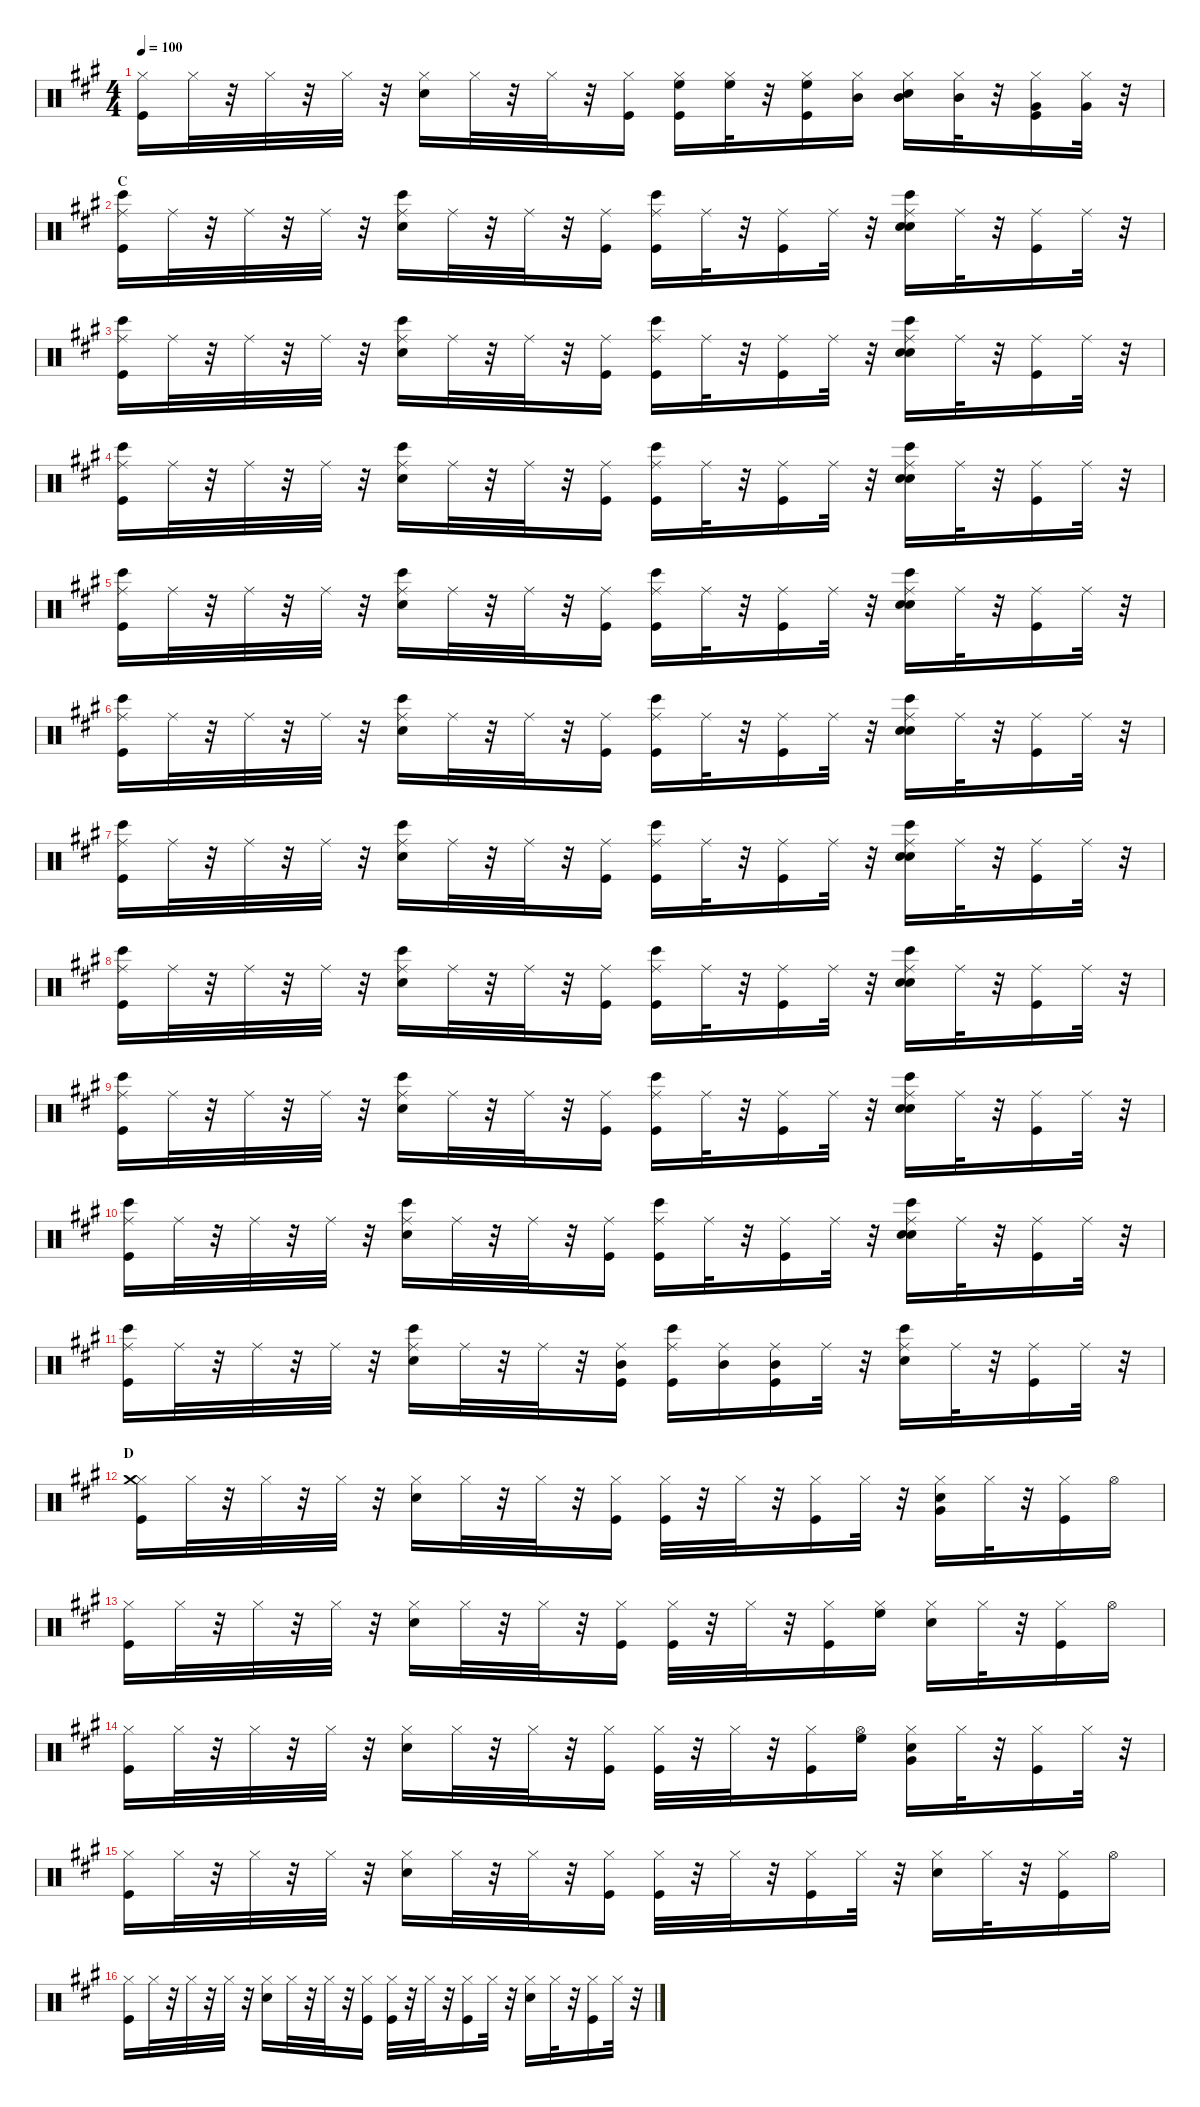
\defaultSystemsLayout 4
\hideDynamics
\bracketExtendMode nobrackets
\singleTrackTrackNamePolicy hidden
\multiTrackTrackNamePolicy hidden
\otherSystemsTrackNameOrientation horizontal
\track ("Percussion" "drm.") {instrument percussion}
\staff {score}
\articulation defaults
\ts (4 4)
\tempo 100
\clef neutral
\ks a
("Kick (hit)"{acc forcenatural} "Hi-Hat (closed)"{acc forcenatural}).16{dy f beam Down} "Hi-Hat (closed)"{acc forcenatural}.32{dy mp beam Down} r.32{beam Down} "Hi-Hat (closed)"{acc forcenatural}.32{dy f beam Down} r.32{beam Down} "Hi-Hat (closed)"{acc forcenatural}.32{beam Down} r.32{beam Down} ("Snare (hit) 2"{acc forcenatural} "Hi-Hat (closed)"{acc forcenatural}).16{dy fff beam Down} "Hi-Hat (closed)"{acc forcenatural}.32{dy mp beam Down} r.32{beam Down} "Hi-Hat (closed)"{acc forcenatural}.32{dy f beam Down} r.32{beam Down} ("Kick (hit)"{acc forcenatural} "Hi-Hat (closed)"{acc forcenatural}).16{dy mf beam Down} ("Kick (hit)"{acc forcenatural} "Hi-Hat (closed)"{acc forcenatural} "High Floor Tom (hit)"{acc forcenatural}).16{dy f beam Down} ("Hi-Hat (closed)"{acc forcenatural} "High Floor Tom (hit)"{acc forcenatural}).32{dy mp beam Down} r.32{beam Down} ("Kick (hit)"{acc forcenatural} "Hi-Hat (closed)"{acc forcenatural} "High Floor Tom (hit)"{acc forcenatural}).16{dy f beam Down} ("Hi-Hat (closed)"{acc forcenatural} "Mid Tom (hit)"{acc forcenatural}).16{beam Down} ("Snare (hit) 2"{acc forcenatural} "Hi-Hat (closed)"{acc forcenatural} "Mid Tom (hit)"{acc forcenatural}).16{dy fff beam Down} ("Hi-Hat (closed)"{acc forcenatural} "Mid Tom (hit)"{acc forcenatural}).32{dy mp beam Down} r.32{beam Down} ("Kick (hit)"{acc forcenatural} "Hi-Hat (closed)"{acc forcenatural} "Very Low Tom (hit)"{acc forcenatural}).16{dy f beam Down} ("Hi-Hat (closed)"{acc forcenatural} "Very Low Tom (hit)"{acc forcenatural}).32{beam Down} r.32{beam Down} |
\section ("" "C")
("Kick (hit)"{acc forcenatural} "Ride (middle)"{acc forcenatural} "Bongo High (hit)"{acc forcenatural}).16{beam Down} "Ride (middle)"{acc forcenatural}.32{dy mp beam Down} r.32{beam Down} "Ride (middle)"{acc forcenatural}.32{beam Down} r.32{beam Down} "Ride (middle)"{acc forcenatural}.32{beam Down} r.32{beam Down} ("Snare (hit) 2"{acc forcenatural} "Ride (middle)"{acc forcenatural} "Bongo High (hit)"{acc forcenatural}).16{dy fff beam Down} "Ride (middle)"{acc forcenatural}.32{dy mp beam Down} r.32{beam Down} "Ride (middle)"{acc forcenatural}.32{beam Down} r.32{beam Down} ("Kick (hit)"{acc forcenatural} "Ride (middle)"{acc forcenatural}).16{dy mf beam Down} ("Kick (hit)"{acc forcenatural} "Ride (middle)"{acc forcenatural} "Bongo High (hit)"{acc forcenatural}).16{dy f beam Down} "Ride (middle)"{acc forcenatural}.32{dy mp beam Down} r.32{beam Down} ("Kick (hit)"{acc forcenatural} "Ride (middle)"{acc forcenatural}).16{dy f beam Down} "Ride (middle)"{acc forcenatural}.32{dy mp beam Down} r.32{beam Down} ("Hand Clap (hit)"{acc forcenatural} "Snare (hit) 2"{acc forcenatural} "Ride (middle)"{acc forcenatural} "Bongo High (hit)"{acc forcenatural}).16{dy f beam Down} "Ride (middle)"{acc forcenatural}.32{dy mp beam Down} r.32{beam Down} ("Kick (hit)"{acc forcenatural} "Ride (middle)"{acc forcenatural}).16{dy f beam Down} "Ride (middle)"{acc forcenatural}.32{dy mp beam Down} r.32{beam Down} |
("Kick (hit)"{acc forcenatural} "Ride (middle)"{acc forcenatural} "Bongo High (hit)"{acc forcenatural}).16{dy f beam Down} "Ride (middle)"{acc forcenatural}.32{dy mp beam Down} r.32{beam Down} "Ride (middle)"{acc forcenatural}.32{beam Down} r.32{beam Down} "Ride (middle)"{acc forcenatural}.32{beam Down} r.32{beam Down} ("Snare (hit) 2"{acc forcenatural} "Ride (middle)"{acc forcenatural} "Bongo High (hit)"{acc forcenatural}).16{dy fff beam Down} "Ride (middle)"{acc forcenatural}.32{dy mp beam Down} r.32{beam Down} "Ride (middle)"{acc forcenatural}.32{beam Down} r.32{beam Down} ("Kick (hit)"{acc forcenatural} "Ride (middle)"{acc forcenatural}).16{dy mf beam Down} ("Kick (hit)"{acc forcenatural} "Ride (middle)"{acc forcenatural} "Bongo High (hit)"{acc forcenatural}).16{dy f beam Down} "Ride (middle)"{acc forcenatural}.32{dy mp beam Down} r.32{beam Down} ("Kick (hit)"{acc forcenatural} "Ride (middle)"{acc forcenatural}).16{dy f beam Down} "Ride (middle)"{acc forcenatural}.32{dy mp beam Down} r.32{beam Down} ("Hand Clap (hit)"{acc forcenatural} "Snare (hit) 2"{acc forcenatural} "Ride (middle)"{acc forcenatural} "Bongo High (hit)"{acc forcenatural}).16{dy f beam Down} "Ride (middle)"{acc forcenatural}.32{dy mp beam Down} r.32{beam Down} ("Kick (hit)"{acc forcenatural} "Ride (middle)"{acc forcenatural}).16{dy f beam Down} "Ride (middle)"{acc forcenatural}.32{dy mp beam Down} r.32{beam Down} |
("Kick (hit)"{acc forcenatural} "Ride (middle)"{acc forcenatural} "Bongo High (hit)"{acc forcenatural}).16{dy f beam Down} "Ride (middle)"{acc forcenatural}.32{dy mp beam Down} r.32{beam Down} "Ride (middle)"{acc forcenatural}.32{beam Down} r.32{beam Down} "Ride (middle)"{acc forcenatural}.32{beam Down} r.32{beam Down} ("Snare (hit) 2"{acc forcenatural} "Ride (middle)"{acc forcenatural} "Bongo High (hit)"{acc forcenatural}).16{dy fff beam Down} "Ride (middle)"{acc forcenatural}.32{dy mp beam Down} r.32{beam Down} "Ride (middle)"{acc forcenatural}.32{beam Down} r.32{beam Down} ("Kick (hit)"{acc forcenatural} "Ride (middle)"{acc forcenatural}).16{dy mf beam Down} ("Kick (hit)"{acc forcenatural} "Ride (middle)"{acc forcenatural} "Bongo High (hit)"{acc forcenatural}).16{dy f beam Down} "Ride (middle)"{acc forcenatural}.32{dy mp beam Down} r.32{beam Down} ("Kick (hit)"{acc forcenatural} "Ride (middle)"{acc forcenatural}).16{dy f beam Down} "Ride (middle)"{acc forcenatural}.32{dy mp beam Down} r.32{beam Down} ("Hand Clap (hit)"{acc forcenatural} "Snare (hit) 2"{acc forcenatural} "Ride (middle)"{acc forcenatural} "Bongo High (hit)"{acc forcenatural}).16{dy f beam Down} "Ride (middle)"{acc forcenatural}.32{dy mp beam Down} r.32{beam Down} ("Kick (hit)"{acc forcenatural} "Ride (middle)"{acc forcenatural}).16{dy f beam Down} "Ride (middle)"{acc forcenatural}.32{dy mp beam Down} r.32{beam Down} |
("Kick (hit)"{acc forcenatural} "Ride (middle)"{acc forcenatural} "Bongo High (hit)"{acc forcenatural}).16{dy f beam Down} "Ride (middle)"{acc forcenatural}.32{dy mp beam Down} r.32{beam Down} "Ride (middle)"{acc forcenatural}.32{beam Down} r.32{beam Down} "Ride (middle)"{acc forcenatural}.32{beam Down} r.32{beam Down} ("Snare (hit) 2"{acc forcenatural} "Ride (middle)"{acc forcenatural} "Bongo High (hit)"{acc forcenatural}).16{dy fff beam Down} "Ride (middle)"{acc forcenatural}.32{dy mp beam Down} r.32{beam Down} "Ride (middle)"{acc forcenatural}.32{beam Down} r.32{beam Down} ("Kick (hit)"{acc forcenatural} "Ride (middle)"{acc forcenatural}).16{dy mf beam Down} ("Kick (hit)"{acc forcenatural} "Ride (middle)"{acc forcenatural} "Bongo High (hit)"{acc forcenatural}).16{dy f beam Down} "Ride (middle)"{acc forcenatural}.32{dy mp beam Down} r.32{beam Down} ("Kick (hit)"{acc forcenatural} "Ride (middle)"{acc forcenatural}).16{dy f beam Down} "Ride (middle)"{acc forcenatural}.32{dy mp beam Down} r.32{beam Down} ("Hand Clap (hit)"{acc forcenatural} "Snare (hit) 2"{acc forcenatural} "Ride (middle)"{acc forcenatural} "Bongo High (hit)"{acc forcenatural}).16{dy f beam Down} "Ride (middle)"{acc forcenatural}.32{dy mp beam Down} r.32{beam Down} ("Kick (hit)"{acc forcenatural} "Ride (middle)"{acc forcenatural}).16{dy f beam Down} "Ride (middle)"{acc forcenatural}.32{dy mp beam Down} r.32{beam Down} |
("Kick (hit)"{acc forcenatural} "Ride (middle)"{acc forcenatural} "Bongo High (hit)"{acc forcenatural}).16{dy f beam Down} "Ride (middle)"{acc forcenatural}.32{dy mp beam Down} r.32{beam Down} "Ride (middle)"{acc forcenatural}.32{beam Down} r.32{beam Down} "Ride (middle)"{acc forcenatural}.32{beam Down} r.32{beam Down} ("Snare (hit) 2"{acc forcenatural} "Ride (middle)"{acc forcenatural} "Bongo High (hit)"{acc forcenatural}).16{dy fff beam Down} "Ride (middle)"{acc forcenatural}.32{dy mp beam Down} r.32{beam Down} "Ride (middle)"{acc forcenatural}.32{beam Down} r.32{beam Down} ("Kick (hit)"{acc forcenatural} "Ride (middle)"{acc forcenatural}).16{dy mf beam Down} ("Kick (hit)"{acc forcenatural} "Ride (middle)"{acc forcenatural} "Bongo High (hit)"{acc forcenatural}).16{dy f beam Down} "Ride (middle)"{acc forcenatural}.32{dy mp beam Down} r.32{beam Down} ("Kick (hit)"{acc forcenatural} "Ride (middle)"{acc forcenatural}).16{dy f beam Down} "Ride (middle)"{acc forcenatural}.32{dy mp beam Down} r.32{beam Down} ("Hand Clap (hit)"{acc forcenatural} "Snare (hit) 2"{acc forcenatural} "Ride (middle)"{acc forcenatural} "Bongo High (hit)"{acc forcenatural}).16{dy f beam Down} "Ride (middle)"{acc forcenatural}.32{dy mp beam Down} r.32{beam Down} ("Kick (hit)"{acc forcenatural} "Ride (middle)"{acc forcenatural}).16{dy f beam Down} "Ride (middle)"{acc forcenatural}.32{dy mp beam Down} r.32{beam Down} |
("Kick (hit)"{acc forcenatural} "Ride (middle)"{acc forcenatural} "Bongo High (hit)"{acc forcenatural}).16{dy f beam Down} "Ride (middle)"{acc forcenatural}.32{dy mp beam Down} r.32{beam Down} "Ride (middle)"{acc forcenatural}.32{beam Down} r.32{beam Down} "Ride (middle)"{acc forcenatural}.32{beam Down} r.32{beam Down} ("Snare (hit) 2"{acc forcenatural} "Ride (middle)"{acc forcenatural} "Bongo High (hit)"{acc forcenatural}).16{dy fff beam Down} "Ride (middle)"{acc forcenatural}.32{dy mp beam Down} r.32{beam Down} "Ride (middle)"{acc forcenatural}.32{beam Down} r.32{beam Down} ("Kick (hit)"{acc forcenatural} "Ride (middle)"{acc forcenatural}).16{dy mf beam Down} ("Kick (hit)"{acc forcenatural} "Ride (middle)"{acc forcenatural} "Bongo High (hit)"{acc forcenatural}).16{dy f beam Down} "Ride (middle)"{acc forcenatural}.32{dy mp beam Down} r.32{beam Down} ("Kick (hit)"{acc forcenatural} "Ride (middle)"{acc forcenatural}).16{dy f beam Down} "Ride (middle)"{acc forcenatural}.32{dy mp beam Down} r.32{beam Down} ("Hand Clap (hit)"{acc forcenatural} "Snare (hit) 2"{acc forcenatural} "Ride (middle)"{acc forcenatural} "Bongo High (hit)"{acc forcenatural}).16{dy f beam Down} "Ride (middle)"{acc forcenatural}.32{dy mp beam Down} r.32{beam Down} ("Kick (hit)"{acc forcenatural} "Ride (middle)"{acc forcenatural}).16{dy f beam Down} "Ride (middle)"{acc forcenatural}.32{dy mp beam Down} r.32{beam Down} |
("Kick (hit)"{acc forcenatural} "Ride (middle)"{acc forcenatural} "Bongo High (hit)"{acc forcenatural}).16{dy f beam Down} "Ride (middle)"{acc forcenatural}.32{dy mp beam Down} r.32{beam Down} "Ride (middle)"{acc forcenatural}.32{beam Down} r.32{beam Down} "Ride (middle)"{acc forcenatural}.32{beam Down} r.32{beam Down} ("Snare (hit) 2"{acc forcenatural} "Ride (middle)"{acc forcenatural} "Bongo High (hit)"{acc forcenatural}).16{dy fff beam Down} "Ride (middle)"{acc forcenatural}.32{dy mp beam Down} r.32{beam Down} "Ride (middle)"{acc forcenatural}.32{beam Down} r.32{beam Down} ("Kick (hit)"{acc forcenatural} "Ride (middle)"{acc forcenatural}).16{dy mf beam Down} ("Kick (hit)"{acc forcenatural} "Ride (middle)"{acc forcenatural} "Bongo High (hit)"{acc forcenatural}).16{dy f beam Down} "Ride (middle)"{acc forcenatural}.32{dy mp beam Down} r.32{beam Down} ("Kick (hit)"{acc forcenatural} "Ride (middle)"{acc forcenatural}).16{dy f beam Down} "Ride (middle)"{acc forcenatural}.32{dy mp beam Down} r.32{beam Down} ("Hand Clap (hit)"{acc forcenatural} "Snare (hit) 2"{acc forcenatural} "Ride (middle)"{acc forcenatural} "Bongo High (hit)"{acc forcenatural}).16{dy f beam Down} "Ride (middle)"{acc forcenatural}.32{dy mp beam Down} r.32{beam Down} ("Kick (hit)"{acc forcenatural} "Ride (middle)"{acc forcenatural}).16{dy f beam Down} "Ride (middle)"{acc forcenatural}.32{dy mp beam Down} r.32{beam Down} |
("Kick (hit)"{acc forcenatural} "Ride (middle)"{acc forcenatural} "Bongo High (hit)"{acc forcenatural}).16{dy f beam Down} "Ride (middle)"{acc forcenatural}.32{dy mp beam Down} r.32{beam Down} "Ride (middle)"{acc forcenatural}.32{beam Down} r.32{beam Down} "Ride (middle)"{acc forcenatural}.32{beam Down} r.32{beam Down} ("Snare (hit) 2"{acc forcenatural} "Ride (middle)"{acc forcenatural} "Bongo High (hit)"{acc forcenatural}).16{dy fff beam Down} "Ride (middle)"{acc forcenatural}.32{dy mp beam Down} r.32{beam Down} "Ride (middle)"{acc forcenatural}.32{beam Down} r.32{beam Down} ("Kick (hit)"{acc forcenatural} "Ride (middle)"{acc forcenatural}).16{dy mf beam Down} ("Kick (hit)"{acc forcenatural} "Ride (middle)"{acc forcenatural} "Bongo High (hit)"{acc forcenatural}).16{dy f beam Down} "Ride (middle)"{acc forcenatural}.32{dy mp beam Down} r.32{beam Down} ("Kick (hit)"{acc forcenatural} "Ride (middle)"{acc forcenatural}).16{dy f beam Down} "Ride (middle)"{acc forcenatural}.32{dy mp beam Down} r.32{beam Down} ("Hand Clap (hit)"{acc forcenatural} "Snare (hit) 2"{acc forcenatural} "Ride (middle)"{acc forcenatural} "Bongo High (hit)"{acc forcenatural}).16{dy f beam Down} "Ride (middle)"{acc forcenatural}.32{dy mp beam Down} r.32{beam Down} ("Kick (hit)"{acc forcenatural} "Ride (middle)"{acc forcenatural}).16{dy f beam Down} "Ride (middle)"{acc forcenatural}.32{dy mp beam Down} r.32{beam Down} |
("Kick (hit)"{acc forcenatural} "Ride (middle)"{acc forcenatural} "Bongo High (hit)"{acc forcenatural}).16{dy f beam Down} "Ride (middle)"{acc forcenatural}.32{dy mp beam Down} r.32{beam Down} "Ride (middle)"{acc forcenatural}.32{beam Down} r.32{beam Down} "Ride (middle)"{acc forcenatural}.32{beam Down} r.32{beam Down} ("Snare (hit) 2"{acc forcenatural} "Ride (middle)"{acc forcenatural} "Bongo High (hit)"{acc forcenatural}).16{dy fff beam Down} "Ride (middle)"{acc forcenatural}.32{dy mp beam Down} r.32{beam Down} "Ride (middle)"{acc forcenatural}.32{beam Down} r.32{beam Down} ("Kick (hit)"{acc forcenatural} "Ride (middle)"{acc forcenatural}).16{dy mf beam Down} ("Kick (hit)"{acc forcenatural} "Ride (middle)"{acc forcenatural} "Bongo High (hit)"{acc forcenatural}).16{dy f beam Down} "Ride (middle)"{acc forcenatural}.32{dy mp beam Down} r.32{beam Down} ("Kick (hit)"{acc forcenatural} "Ride (middle)"{acc forcenatural}).16{dy f beam Down} "Ride (middle)"{acc forcenatural}.32{dy mp beam Down} r.32{beam Down} ("Hand Clap (hit)"{acc forcenatural} "Snare (hit) 2"{acc forcenatural} "Ride (middle)"{acc forcenatural} "Bongo High (hit)"{acc forcenatural}).16{dy f beam Down} "Ride (middle)"{acc forcenatural}.32{dy mp beam Down} r.32{beam Down} ("Kick (hit)"{acc forcenatural} "Ride (middle)"{acc forcenatural}).16{dy f beam Down} "Ride (middle)"{acc forcenatural}.32{dy mp beam Down} r.32{beam Down} |
("Kick (hit)"{acc forcenatural} "Ride (middle)"{acc forcenatural} "Bongo High (hit)"{acc forcenatural}).16{dy f beam Down} "Ride (middle)"{acc forcenatural}.32{dy mp beam Down} r.32{beam Down} "Ride (middle)"{acc forcenatural}.32{beam Down} r.32{beam Down} "Ride (middle)"{acc forcenatural}.32{beam Down} r.32{beam Down} ("Snare (hit) 2"{acc forcenatural} "Ride (middle)"{acc forcenatural} "Bongo High (hit)"{acc forcenatural}).16{dy fff beam Down} "Ride (middle)"{acc forcenatural}.32{dy mp beam Down} r.32{beam Down} "Ride (middle)"{acc forcenatural}.32{beam Down} r.32{beam Down} ("Kick (hit)"{acc forcenatural} "Mid Tom (hit)"{acc forcenatural} "Ride (middle)"{acc forcenatural}).16{dy mf beam Down} ("Kick (hit)"{acc forcenatural} "Ride (middle)"{acc forcenatural} "Bongo High (hit)"{acc forcenatural}).16{dy f beam Down} ("Mid Tom (hit)"{acc forcenatural} "Ride (middle)"{acc forcenatural}).16{beam Down} ("Kick (hit)"{acc forcenatural} "Mid Tom (hit)"{acc forcenatural} "Ride (middle)"{acc forcenatural}).16{beam Down} "Ride (middle)"{acc forcenatural}.32{dy mp beam Down} r.32{beam Down} ("Snare (hit) 2"{acc forcenatural} "Ride (middle)"{acc forcenatural} "Bongo High (hit)"{acc forcenatural}).16{dy fff beam Down} "Ride (middle)"{acc forcenatural}.32{dy mp beam Down} r.32{beam Down} ("Kick (hit)"{acc forcenatural} "Ride (middle)"{acc forcenatural}).16{dy f beam Down} "Ride (middle)"{acc forcenatural}.32{dy mp beam Down} r.32{beam Down} |
\section ("" "D")
("Kick (hit)"{acc forcenatural} "Hi-Hat (closed)"{acc forcenatural} "Crash medium (hit)"{acc forcenatural}).16{dy f beam Down} "Hi-Hat (closed)"{acc forcenatural}.32{dy mp beam Down} r.32{beam Down} "Hi-Hat (closed)"{acc forcenatural}.32{dy f beam Down} r.32{beam Down} "Hi-Hat (closed)"{acc forcenatural}.32{beam Down} r.32{beam Down} ("Snare (hit) 2"{acc forcenatural} "Hi-Hat (closed)"{acc forcenatural}).16{dy fff beam Down} "Hi-Hat (closed)"{acc forcenatural}.32{dy mp beam Down} r.32{beam Down} "Hi-Hat (closed)"{acc forcenatural}.32{dy f beam Down} r.32{beam Down} ("Kick (hit)"{acc forcenatural} "Hi-Hat (closed)"{acc forcenatural}).16{dy mf beam Down} ("Kick (hit)"{acc forcenatural} "Hi-Hat (closed)"{acc forcenatural}).32{dy f beam Down} r.32{beam Down} "Hi-Hat (closed)"{acc forcenatural}.32{dy mp beam Down} r.32{beam Down} ("Kick (hit)"{acc forcenatural} "Hi-Hat (closed)"{acc forcenatural}).16{dy f beam Down} "Hi-Hat (closed)"{acc forcenatural}.32{beam Down} r.32{beam Down} ("Snare (hit) 2"{acc forcenatural} "Hi-Hat (closed)"{acc forcenatural} "Very Low Tom (hit)"{acc forcenatural}).16{dy fff beam Down} "Hi-Hat (closed)"{acc forcenatural}.32{dy mp beam Down} r.32{beam Down} ("Kick (hit)"{acc forcenatural} "Hi-Hat (closed)"{acc forcenatural}).16{dy f beam Down} "Hi-Hat (open)"{acc forcenatural}.16{beam Down} |
("Kick (hit)"{acc forcenatural} "Hi-Hat (closed)"{acc forcenatural}).16{beam Down} "Hi-Hat (closed)"{acc forcenatural}.32{dy mp beam Down} r.32{beam Down} "Hi-Hat (closed)"{acc forcenatural}.32{dy f beam Down} r.32{beam Down} "Hi-Hat (closed)"{acc forcenatural}.32{beam Down} r.32{beam Down} ("Snare (hit) 2"{acc forcenatural} "Hi-Hat (closed)"{acc forcenatural}).16{dy fff beam Down} "Hi-Hat (closed)"{acc forcenatural}.32{dy mp beam Down} r.32{beam Down} "Hi-Hat (closed)"{acc forcenatural}.32{dy f beam Down} r.32{beam Down} ("Kick (hit)"{acc forcenatural} "Hi-Hat (closed)"{acc forcenatural}).16{dy mf beam Down} ("Kick (hit)"{acc forcenatural} "Hi-Hat (closed)"{acc forcenatural}).32{dy f beam Down} r.32{beam Down} "Hi-Hat (closed)"{acc forcenatural}.32{dy mp beam Down} r.32{beam Down} ("Kick (hit)"{acc forcenatural} "Hi-Hat (closed)"{acc forcenatural}).16{dy f beam Down} ("Hi-Hat (closed)"{acc forcenatural} "High Floor Tom (hit)"{acc forcenatural}).16{beam Down} ("Snare (hit) 2"{acc forcenatural} "Hi-Hat (closed)"{acc forcenatural}).16{dy fff beam Down} "Hi-Hat (closed)"{acc forcenatural}.32{dy mp beam Down} r.32{beam Down} ("Kick (hit)"{acc forcenatural} "Hi-Hat (closed)"{acc forcenatural}).16{dy f beam Down} "Hi-Hat (open)"{acc forcenatural}.16{beam Down} |
("Kick (hit)"{acc forcenatural} "Hi-Hat (closed)"{acc forcenatural}).16{beam Down} "Hi-Hat (closed)"{acc forcenatural}.32{dy mp beam Down} r.32{beam Down} "Hi-Hat (closed)"{acc forcenatural}.32{dy f beam Down} r.32{beam Down} "Hi-Hat (closed)"{acc forcenatural}.32{beam Down} r.32{beam Down} ("Snare (hit) 2"{acc forcenatural} "Hi-Hat (closed)"{acc forcenatural}).16{dy fff beam Down} "Hi-Hat (closed)"{acc forcenatural}.32{dy mp beam Down} r.32{beam Down} "Hi-Hat (closed)"{acc forcenatural}.32{dy f beam Down} r.32{beam Down} ("Kick (hit)"{acc forcenatural} "Hi-Hat (closed)"{acc forcenatural}).16{dy mf beam Down} ("Kick (hit)"{acc forcenatural} "Hi-Hat (closed)"{acc forcenatural}).32{dy f beam Down} r.32{beam Down} "Hi-Hat (closed)"{acc forcenatural}.32{dy mp beam Down} r.32{beam Down} ("Kick (hit)"{acc forcenatural} "Hi-Hat (closed)"{acc forcenatural}).16{dy f beam Down} ("Hi-Hat (open)"{acc forcenatural} "High Floor Tom (hit)"{acc forcenatural}).16{beam Down} ("Snare (hit) 2"{acc forcenatural} "Hi-Hat (closed)"{acc forcenatural} "Very Low Tom (hit)"{acc forcenatural}).16{dy fff beam Down} "Hi-Hat (closed)"{acc forcenatural}.32{dy mp beam Down} r.32{beam Down} ("Kick (hit)"{acc forcenatural} "Hi-Hat (closed)"{acc forcenatural}).16{dy f beam Down} "Hi-Hat (closed)"{acc forcenatural}.32{beam Down} r.32{beam Down} |
("Kick (hit)"{acc forcenatural} "Hi-Hat (closed)"{acc forcenatural}).16{beam Down} "Hi-Hat (closed)"{acc forcenatural}.32{dy mp beam Down} r.32{beam Down} "Hi-Hat (closed)"{acc forcenatural}.32{dy f beam Down} r.32{beam Down} "Hi-Hat (closed)"{acc forcenatural}.32{beam Down} r.32{beam Down} ("Snare (hit) 2"{acc forcenatural} "Hi-Hat (closed)"{acc forcenatural}).16{dy fff beam Down} "Hi-Hat (closed)"{acc forcenatural}.32{dy mp beam Down} r.32{beam Down} "Hi-Hat (closed)"{acc forcenatural}.32{dy f beam Down} r.32{beam Down} ("Kick (hit)"{acc forcenatural} "Hi-Hat (closed)"{acc forcenatural}).16{dy mf beam Down} ("Kick (hit)"{acc forcenatural} "Hi-Hat (closed)"{acc forcenatural}).32{dy f beam Down} r.32{beam Down} "Hi-Hat (closed)"{acc forcenatural}.32{dy mp beam Down} r.32{beam Down} ("Kick (hit)"{acc forcenatural} "Hi-Hat (closed)"{acc forcenatural}).16{dy f beam Down} "Hi-Hat (closed)"{acc forcenatural}.32{beam Down} r.32{beam Down} ("Snare (hit) 2"{acc forcenatural} "Hi-Hat (closed)"{acc forcenatural}).16{dy fff beam Down} "Hi-Hat (closed)"{acc forcenatural}.32{dy mp beam Down} r.32{beam Down} ("Kick (hit)"{acc forcenatural} "Hi-Hat (closed)"{acc forcenatural}).16{dy f beam Down} "Hi-Hat (open)"{acc forcenatural}.16{beam Down} |
("Kick (hit)"{acc forcenatural} "Hi-Hat (closed)"{acc forcenatural}).16{beam Down} "Hi-Hat (closed)"{acc forcenatural}.32{dy mp beam Down} r.32{beam Down} "Hi-Hat (closed)"{acc forcenatural}.32{dy f beam Down} r.32{beam Down} "Hi-Hat (closed)"{acc forcenatural}.32{beam Down} r.32{beam Down} ("Snare (hit) 2"{acc forcenatural} "Hi-Hat (closed)"{acc forcenatural}).16{dy fff beam Down} "Hi-Hat (closed)"{acc forcenatural}.32{dy mp beam Down} r.32{beam Down} "Hi-Hat (closed)"{acc forcenatural}.32{dy f beam Down} r.32{beam Down} ("Kick (hit)"{acc forcenatural} "Hi-Hat (closed)"{acc forcenatural}).16{dy mf beam Down} ("Kick (hit)"{acc forcenatural} "Hi-Hat (closed)"{acc forcenatural}).32{dy f beam Down} r.32{beam Down} "Hi-Hat (closed)"{acc forcenatural}.32{dy mp beam Down} r.32{beam Down} ("Kick (hit)"{acc forcenatural} "Hi-Hat (closed)"{acc forcenatural}).16{dy f beam Down} "Hi-Hat (closed)"{acc forcenatural}.32{beam Down} r.32{beam Down} ("Snare (hit) 2"{acc forcenatural} "Hi-Hat (closed)"{acc forcenatural}).16{dy fff beam Down} "Hi-Hat (closed)"{acc forcenatural}.32{dy mp beam Down} r.32{beam Down} ("Kick (hit)"{acc forcenatural} "Hi-Hat (closed)"{acc forcenatural}).16{dy f beam Down} "Hi-Hat (closed)"{acc forcenatural}.32{beam Down} r.32{beam Down}
